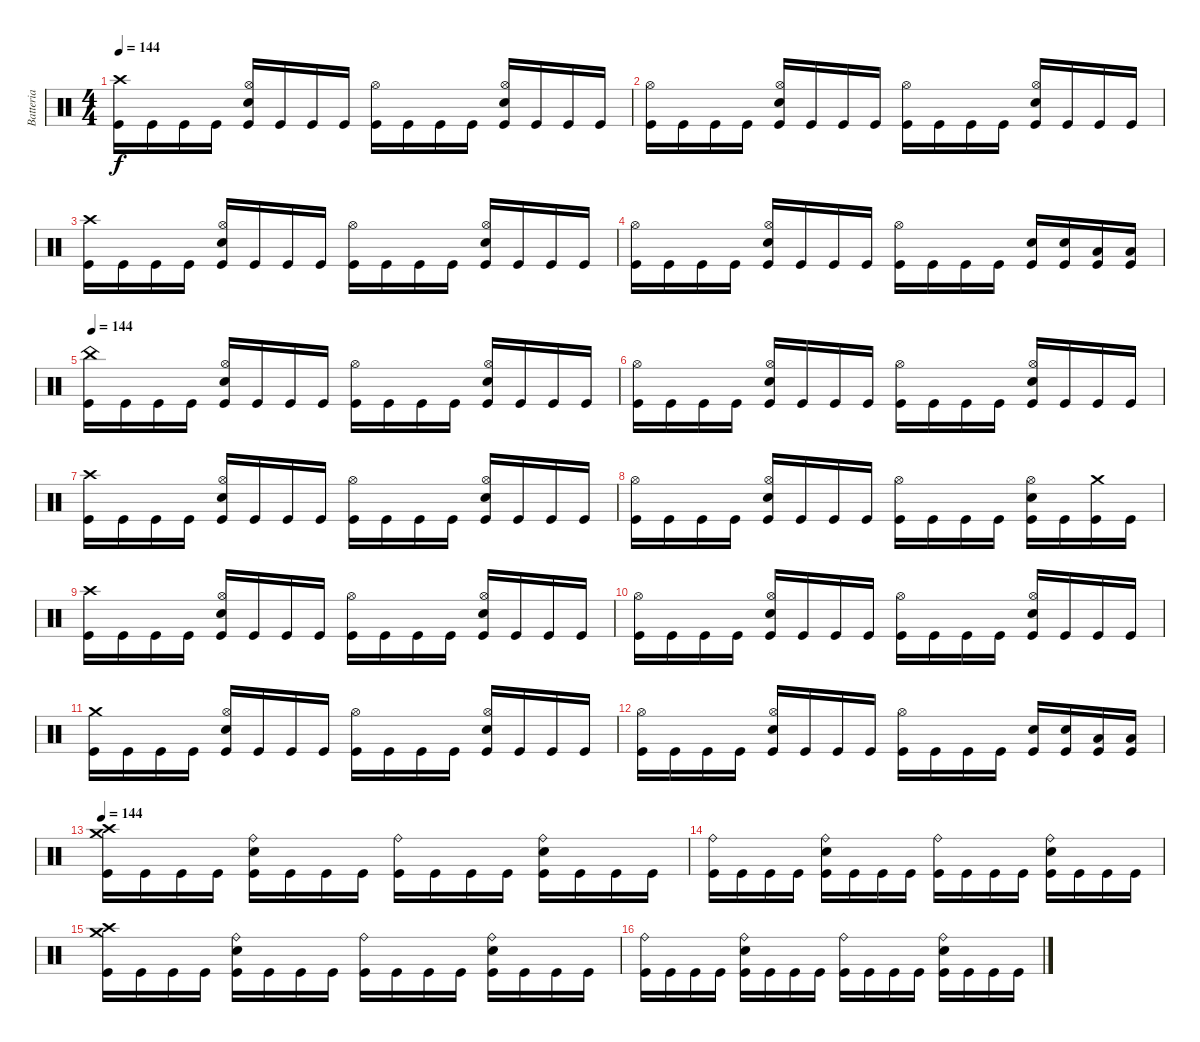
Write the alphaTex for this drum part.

\track ("Batteria" "Batteria") {instrument percussion}
\staff {score}
\articulation defaults
\ts (4 4)
\tempo 144
\clef neutral
\ks c
("Crash high (hit)" "Kick (hit)").16{dy f} "Kick (hit)".16 "Kick (hit)".16 "Kick (hit)".16 ("Hi-Hat (open)" "Snare (hit) 2" "Kick (hit)").16 "Kick (hit)".16 "Kick (hit)".16 "Kick (hit)".16 ("Hi-Hat (open)" "Kick (hit)").16 "Kick (hit)".16 "Kick (hit)".16 "Kick (hit)".16 ("Hi-Hat (open)" "Snare (hit) 2" "Kick (hit)").16 "Kick (hit)".16 "Kick (hit)".16 "Kick (hit)".16 |
("Hi-Hat (open)" "Kick (hit)").16 "Kick (hit)".16 "Kick (hit)".16 "Kick (hit)".16 ("Hi-Hat (open)" "Snare (hit) 2" "Kick (hit)").16 "Kick (hit)".16 "Kick (hit)".16 "Kick (hit)".16 ("Hi-Hat (open)" "Kick (hit)").16 "Kick (hit)".16 "Kick (hit)".16 "Kick (hit)".16 ("Hi-Hat (open)" "Snare (hit) 2" "Kick (hit)").16 "Kick (hit)".16 "Kick (hit)".16 "Kick (hit)".16 |
("Crash high (hit)" "Kick (hit)").16 "Kick (hit)".16 "Kick (hit)".16 "Kick (hit)".16 ("Hi-Hat (open)" "Snare (hit) 2" "Kick (hit)").16 "Kick (hit)".16 "Kick (hit)".16 "Kick (hit)".16 ("Hi-Hat (open)" "Kick (hit)").16 "Kick (hit)".16 "Kick (hit)".16 "Kick (hit)".16 ("Hi-Hat (open)" "Snare (hit) 2" "Kick (hit)").16 "Kick (hit)".16 "Kick (hit)".16 "Kick (hit)".16 |
("Hi-Hat (open)" "Kick (hit)").16 "Kick (hit)".16 "Kick (hit)".16 "Kick (hit)".16 ("Hi-Hat (open)" "Snare (hit) 2" "Kick (hit)").16 "Kick (hit)".16 "Kick (hit)".16 "Kick (hit)".16 ("Hi-Hat (open)" "Kick (hit)").16 "Kick (hit)".16 "Kick (hit)".16 "Kick (hit)".16 ("Snare (hit) 2" "Kick (hit)").16 ("Snare (hit) 2" "Kick (hit)").16 ("Low Tom (hit)" "Kick (hit)").16 ("Low Tom (hit)" "Kick (hit)").16 |
\tempo 144
("China (hit)" "Kick (hit)").16 "Kick (hit)".16 "Kick (hit)".16 "Kick (hit)".16 ("Hi-Hat (open)" "Snare (hit) 2" "Kick (hit)").16 "Kick (hit)".16 "Kick (hit)".16 "Kick (hit)".16 ("Hi-Hat (open)" "Kick (hit)").16 "Kick (hit)".16 "Kick (hit)".16 "Kick (hit)".16 ("Hi-Hat (open)" "Snare (hit) 2" "Kick (hit)").16 "Kick (hit)".16 "Kick (hit)".16 "Kick (hit)".16 |
("Hi-Hat (open)" "Kick (hit)").16 "Kick (hit)".16 "Kick (hit)".16 "Kick (hit)".16 ("Hi-Hat (open)" "Snare (hit) 2" "Kick (hit)").16 "Kick (hit)".16 "Kick (hit)".16 "Kick (hit)".16 ("Hi-Hat (open)" "Kick (hit)").16 "Kick (hit)".16 "Kick (hit)".16 "Kick (hit)".16 ("Hi-Hat (open)" "Snare (hit) 2" "Kick (hit)").16 "Kick (hit)".16 "Kick (hit)".16 "Kick (hit)".16 |
("Crash high (hit)" "Kick (hit)").16 "Kick (hit)".16 "Kick (hit)".16 "Kick (hit)".16 ("Hi-Hat (open)" "Snare (hit) 2" "Kick (hit)").16 "Kick (hit)".16 "Kick (hit)".16 "Kick (hit)".16 ("Hi-Hat (open)" "Kick (hit)").16 "Kick (hit)".16 "Kick (hit)".16 "Kick (hit)".16 ("Hi-Hat (open)" "Snare (hit) 2" "Kick (hit)").16 "Kick (hit)".16 "Kick (hit)".16 "Kick (hit)".16 |
("Hi-Hat (open)" "Kick (hit)").16 "Kick (hit)".16 "Kick (hit)".16 "Kick (hit)".16 ("Hi-Hat (open)" "Snare (hit) 2" "Kick (hit)").16 "Kick (hit)".16 "Kick (hit)".16 "Kick (hit)".16 ("Hi-Hat (open)" "Kick (hit)").16 "Kick (hit)".16 "Kick (hit)".16 "Kick (hit)".16 ("Hi-Hat (open)" "Snare (hit) 2" "Kick (hit)").16 "Kick (hit)".16 ("Crash medium (hit)" "Kick (hit)").16 "Kick (hit)".16 |
("Crash high (hit)" "Kick (hit)").16 "Kick (hit)".16 "Kick (hit)".16 "Kick (hit)".16 ("Hi-Hat (open)" "Snare (hit) 2" "Kick (hit)").16 "Kick (hit)".16 "Kick (hit)".16 "Kick (hit)".16 ("Hi-Hat (open)" "Kick (hit)").16 "Kick (hit)".16 "Kick (hit)".16 "Kick (hit)".16 ("Hi-Hat (open)" "Snare (hit) 2" "Kick (hit)").16 "Kick (hit)".16 "Kick (hit)".16 "Kick (hit)".16 |
("Hi-Hat (open)" "Kick (hit)").16 "Kick (hit)".16 "Kick (hit)".16 "Kick (hit)".16 ("Hi-Hat (open)" "Snare (hit) 2" "Kick (hit)").16 "Kick (hit)".16 "Kick (hit)".16 "Kick (hit)".16 ("Hi-Hat (open)" "Kick (hit)").16 "Kick (hit)".16 "Kick (hit)".16 "Kick (hit)".16 ("Hi-Hat (open)" "Snare (hit) 2" "Kick (hit)").16 "Kick (hit)".16 "Kick (hit)".16 "Kick (hit)".16 |
("Crash medium (hit)" "Kick (hit)").16 "Kick (hit)".16 "Kick (hit)".16 "Kick (hit)".16 ("Hi-Hat (open)" "Snare (hit) 2" "Kick (hit)").16 "Kick (hit)".16 "Kick (hit)".16 "Kick (hit)".16 ("Hi-Hat (open)" "Kick (hit)").16 "Kick (hit)".16 "Kick (hit)".16 "Kick (hit)".16 ("Hi-Hat (open)" "Snare (hit) 2" "Kick (hit)").16 "Kick (hit)".16 "Kick (hit)".16 "Kick (hit)".16 |
("Hi-Hat (open)" "Kick (hit)").16 "Kick (hit)".16 "Kick (hit)".16 "Kick (hit)".16 ("Hi-Hat (open)" "Snare (hit) 2" "Kick (hit)").16 "Kick (hit)".16 "Kick (hit)".16 "Kick (hit)".16 ("Hi-Hat (open)" "Kick (hit)").16 "Kick (hit)".16 "Kick (hit)".16 "Kick (hit)".16 ("Snare (hit) 2" "Kick (hit)").16 ("Snare (hit) 2" "Kick (hit)").16 ("Low Tom (hit)" "Kick (hit)").16 ("Low Tom (hit)" "Kick (hit)").16 |
\tempo 144
("Crash medium (hit)" "Crash high (hit)" "Kick (hit)").16 "Kick (hit)".16 "Kick (hit)".16 "Kick (hit)".16 ("Ride (bell)" "Snare (hit) 2" "Kick (hit)").16 "Kick (hit)".16 "Kick (hit)".16 "Kick (hit)".16 ("Ride (bell)" "Kick (hit)").16 "Kick (hit)".16 "Kick (hit)".16 "Kick (hit)".16 ("Ride (bell)" "Snare (hit) 2" "Kick (hit)").16 "Kick (hit)".16 "Kick (hit)".16 "Kick (hit)".16 |
("Ride (bell)" "Kick (hit)").16 "Kick (hit)".16 "Kick (hit)".16 "Kick (hit)".16 ("Ride (bell)" "Snare (hit) 2" "Kick (hit)").16 "Kick (hit)".16 "Kick (hit)".16 "Kick (hit)".16 ("Ride (bell)" "Kick (hit)").16 "Kick (hit)".16 "Kick (hit)".16 "Kick (hit)".16 ("Ride (bell)" "Snare (hit) 2" "Kick (hit)").16 "Kick (hit)".16 "Kick (hit)".16 "Kick (hit)".16 |
("Crash medium (hit)" "Crash high (hit)" "Kick (hit)").16 "Kick (hit)".16 "Kick (hit)".16 "Kick (hit)".16 ("Ride (bell)" "Snare (hit) 2" "Kick (hit)").16 "Kick (hit)".16 "Kick (hit)".16 "Kick (hit)".16 ("Ride (bell)" "Kick (hit)").16 "Kick (hit)".16 "Kick (hit)".16 "Kick (hit)".16 ("Ride (bell)" "Snare (hit) 2" "Kick (hit)").16 "Kick (hit)".16 "Kick (hit)".16 "Kick (hit)".16 |
("Ride (bell)" "Kick (hit)").16 "Kick (hit)".16 "Kick (hit)".16 "Kick (hit)".16 ("Ride (bell)" "Snare (hit) 2" "Kick (hit)").16 "Kick (hit)".16 "Kick (hit)".16 "Kick (hit)".16 ("Ride (bell)" "Kick (hit)").16 "Kick (hit)".16 "Kick (hit)".16 "Kick (hit)".16 ("Ride (bell)" "Snare (hit) 2" "Kick (hit)").16 "Kick (hit)".16 "Kick (hit)".16 "Kick (hit)".16
